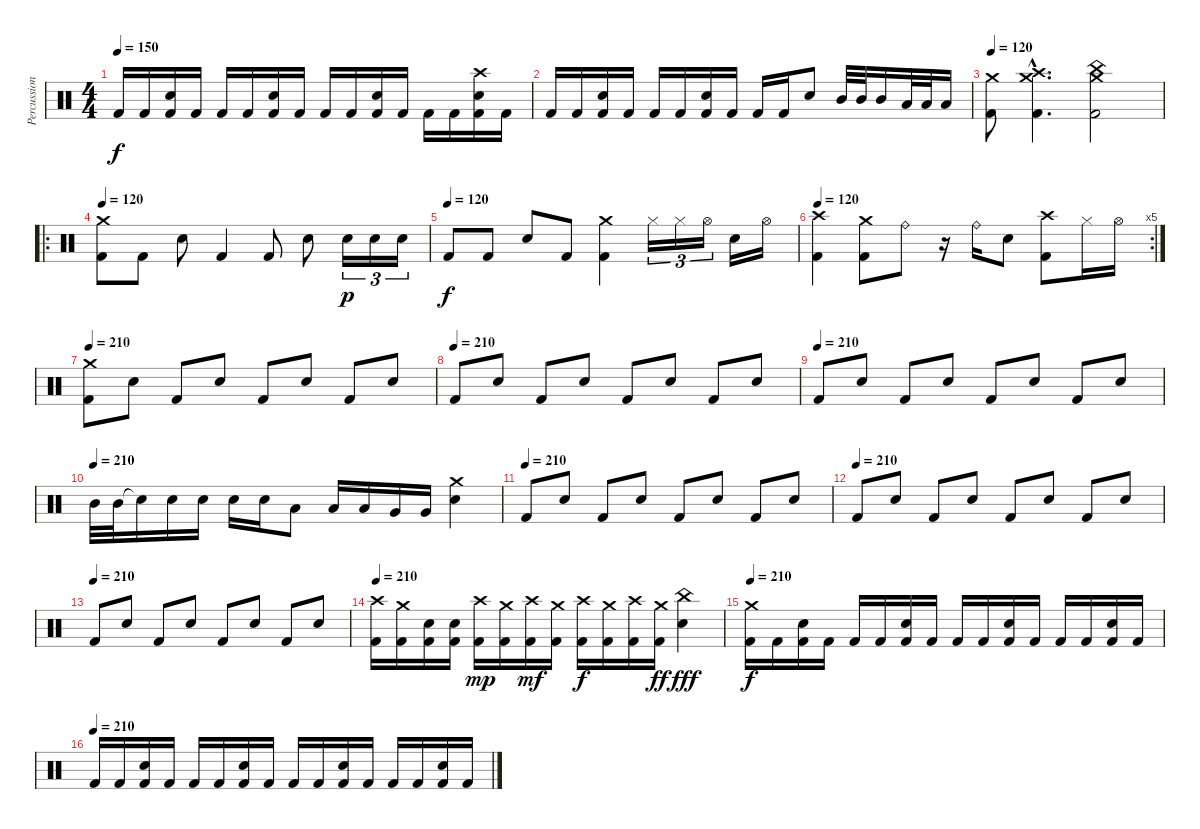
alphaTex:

\track ("Percussion" "Percussion") {instrument percussion}
\staff {score}
\articulation defaults
\ts (4 4)
\tempo 150
\clef neutral
\ks c "Kick (hit) 2".16{dy f} "Kick (hit) 2".16
("Snare (hit) 2" "Kick (hit) 2").16 "Kick (hit) 2".16 "Kick (hit) 2".16 "Kick (hit) 2".16 ("Snare (hit) 2" "Kick (hit) 2").16 "Kick (hit) 2".16 "Kick (hit) 2".16 "Kick (hit) 2".16 ("Snare (hit) 2" "Kick (hit) 2").16 "Kick (hit) 2".16 "Kick (hit) 2".16 "Kick (hit) 2".16 ("Crash high (hit)" "Snare (hit) 2" "Kick (hit) 2").16 "Kick (hit) 2".16 |
"Kick (hit) 2".16 "Kick (hit) 2".16 ("Snare (hit) 2" "Kick (hit) 2").16 "Kick (hit) 2".16 "Kick (hit) 2".16 "Kick (hit) 2".16 ("Snare (hit) 2" "Kick (hit) 2").16 "Kick (hit) 2".16 "Kick (hit) 2".16 "Kick (hit) 2".16 "Snare (hit) 2".8 "Mid Tom (hit)".32 "Mid Tom (hit)".32 "Mid Tom (hit)".16 "Low Tom (hit)".32 "Low Tom (hit)".32 "Low Tom (hit)".16 |
\tempo 120
("Crash medium (hit)" "Kick (hit) 2").8 ("Crash high (hit)"{hac} "Crash medium (hit)"{hac} "Kick (hit) 2"{hac}).4{d} ("China (hit)" "Crash medium (hit)" "Kick (hit) 2").2 |
\ro
\tempo 120
("Crash medium (hit)" "Kick (hit) 2").8 "Kick (hit) 2".8 "Snare (hit) 2".8 "Kick (hit) 2".4 "Kick (hit) 2".8 "Snare (hit) 2".8 "Snare (hit) 2".16{tu (3 2) dy p} "Snare (hit) 2".16{tu (3 2)} "Snare (hit) 2".16{tu (3 2)} |
\tempo (120)
"Kick (hit) 2".8{dy f} "Kick (hit) 2".8 "Snare (hit) 2".8 "Kick (hit) 2".8 ("Crash medium (hit)" "Kick (hit) 2").4 "Hi-Hat (closed)".16{tu (3 2)} "Hi-Hat (closed)".16{tu (3 2)} "Hi-Hat (open)".16{tu (3 2)} "Snare (hit) 2".16 "Hi-Hat (open)".16 |
\rc 5
\tempo 120
("Crash high (hit)" "Kick (hit) 2").4 ("Crash medium (hit)" "Kick (hit) 2").8 "Ride (bell)".8 r.16 "Ride (bell)".16 "Snare (hit) 2".8 ("Crash high (hit)" "Kick (hit) 2").8 "Hi-Hat (closed)".16 "Hi-Hat (open)".16 |
\tempo 210
("Crash medium (hit)" "Kick (hit) 2").8 "Snare (hit) 2".8 "Kick (hit) 2".8 "Snare (hit) 2".8 "Kick (hit) 2".8 "Snare (hit) 2".8 "Kick (hit) 2".8 "Snare (hit) 2".8 |
\tempo (210)
"Kick (hit) 2".8 "Snare (hit) 2".8 "Kick (hit) 2".8 "Snare (hit) 2".8 "Kick (hit) 2".8 "Snare (hit) 2".8 "Kick (hit) 2".8 "Snare (hit) 2".8 |
\tempo (210)
"Kick (hit) 2".8 "Snare (hit) 2".8 "Kick (hit) 2".8 "Snare (hit) 2".8 "Kick (hit) 2".8 "Snare (hit) 2".8 "Kick (hit) 2".8 "Snare (hit) 2".8 |
\tempo (210)
"Mid Tom (hit)".32 "Mid Tom (hit)".32 "Snare (hit)"{t}.16 "Snare (hit) 2".16 "Snare (hit) 2".16 "Snare (hit) 2".16 "Snare (hit) 2".16 "Low Tom (hit)".8 "Low Tom (hit)".16 "Low Tom (hit)".16 "Very Low Tom (hit)".16 "Very Low Tom (hit)".16 ("Crash medium (hit)" "Snare (hit) 2").4 |
\tempo (210)
"Kick (hit) 2".8 "Snare (hit) 2".8 "Kick (hit) 2".8 "Snare (hit) 2".8 "Kick (hit) 2".8 "Snare (hit) 2".8 "Kick (hit) 2".8 "Snare (hit) 2".8 |
\tempo (210)
"Kick (hit) 2".8 "Snare (hit) 2".8 "Kick (hit) 2".8 "Snare (hit) 2".8 "Kick (hit) 2".8 "Snare (hit) 2".8 "Kick (hit) 2".8 "Snare (hit) 2".8 |
\tempo (210)
"Kick (hit) 2".8 "Snare (hit) 2".8 "Kick (hit) 2".8 "Snare (hit) 2".8 "Kick (hit) 2".8 "Snare (hit) 2".8 "Kick (hit) 2".8 "Snare (hit) 2".8 |
\tempo 210
("Crash high (hit)" "Kick (hit) 2").16 ("Crash medium (hit)" "Kick (hit) 2").16 ("Snare (hit) 2" "Kick (hit) 2").16 ("Snare (hit) 2" "Kick (hit) 2").16 ("Crash high (hit)" "Kick (hit) 2").16{dy mp} ("Crash medium (hit)" "Kick (hit) 2").16 ("Crash high (hit)" "Kick (hit) 2").16{dy mf} ("Crash medium (hit)" "Kick (hit) 2").16 ("Crash high (hit)" "Kick (hit) 2").16{dy f} ("Crash medium (hit)" "Kick (hit) 2").16 ("Crash high (hit)" "Kick (hit) 2").16 ("Crash medium (hit)" "Kick (hit) 2").16{dy ff} ("China (hit)" "Snare (hit) 2").4{dy fff} |
\tempo 210
("Crash medium (hit)" "Kick (hit) 2").16{dy f} "Kick (hit) 2".16 ("Snare (hit) 2" "Kick (hit) 2").16 "Kick (hit) 2".16 "Kick (hit) 2".16 "Kick (hit) 2".16 ("Snare (hit) 2" "Kick (hit) 2").16 "Kick (hit) 2".16 "Kick (hit) 2".16 "Kick (hit) 2".16 ("Snare (hit) 2" "Kick (hit) 2").16 "Kick (hit) 2".16 "Kick (hit) 2".16 "Kick (hit) 2".16 ("Snare (hit) 2" "Kick (hit) 2").16 "Kick (hit) 2".16 |
\tempo (210)
"Kick (hit) 2".16 "Kick (hit) 2".16 ("Snare (hit) 2" "Kick (hit) 2").16 "Kick (hit) 2".16 "Kick (hit) 2".16 "Kick (hit) 2".16 ("Snare (hit) 2" "Kick (hit) 2").16 "Kick (hit) 2".16 "Kick (hit) 2".16 "Kick (hit) 2".16 ("Snare (hit) 2" "Kick (hit) 2").16 "Kick (hit) 2".16 "Kick (hit) 2".16 "Kick (hit) 2".16 ("Snare (hit) 2" "Kick (hit) 2").16 "Kick (hit) 2".16
